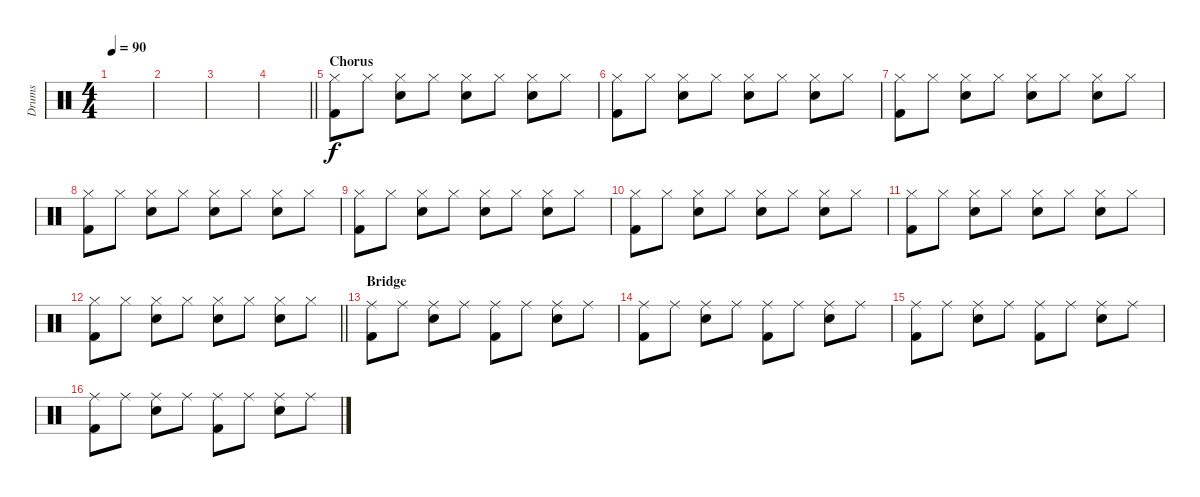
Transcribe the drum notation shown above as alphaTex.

\track ("Drums" "Drums") {instrument percussion}
\staff {score}
\articulation defaults
\ts (4 4)
\tempo 90
\clef neutral
\ks c
|
|
|
\barLineRight lightlight
|
\section ("" "Chorus")
("Hi-Hat (closed)" "Kick (hit) 2").8 "Hi-Hat (closed)".8 ("Hi-Hat (closed)" "Snare (hit) 2").8 "Hi-Hat (closed)".8 ("Hi-Hat (closed)" "Snare (hit) 2").8 "Hi-Hat (closed)".8 ("Hi-Hat (closed)" "Snare (hit) 2").8 "Hi-Hat (closed)".8 |
("Hi-Hat (closed)" "Kick (hit) 2").8 "Hi-Hat (closed)".8 ("Hi-Hat (closed)" "Snare (hit) 2").8 "Hi-Hat (closed)".8 ("Hi-Hat (closed)" "Snare (hit) 2").8 "Hi-Hat (closed)".8 ("Hi-Hat (closed)" "Snare (hit) 2").8 "Hi-Hat (closed)".8 |
("Hi-Hat (closed)" "Kick (hit) 2").8 "Hi-Hat (closed)".8 ("Hi-Hat (closed)" "Snare (hit) 2").8 "Hi-Hat (closed)".8 ("Hi-Hat (closed)" "Snare (hit) 2").8 "Hi-Hat (closed)".8 ("Hi-Hat (closed)" "Snare (hit) 2").8 "Hi-Hat (closed)".8 |
("Hi-Hat (closed)" "Kick (hit) 2").8 "Hi-Hat (closed)".8 ("Hi-Hat (closed)" "Snare (hit) 2").8 "Hi-Hat (closed)".8 ("Hi-Hat (closed)" "Snare (hit) 2").8 "Hi-Hat (closed)".8 ("Hi-Hat (closed)" "Snare (hit) 2").8 "Hi-Hat (closed)".8 |
("Hi-Hat (closed)" "Kick (hit) 2").8 "Hi-Hat (closed)".8 ("Hi-Hat (closed)" "Snare (hit) 2").8 "Hi-Hat (closed)".8 ("Hi-Hat (closed)" "Snare (hit) 2").8 "Hi-Hat (closed)".8 ("Hi-Hat (closed)" "Snare (hit) 2").8 "Hi-Hat (closed)".8 |
("Hi-Hat (closed)" "Kick (hit) 2").8 "Hi-Hat (closed)".8 ("Hi-Hat (closed)" "Snare (hit) 2").8 "Hi-Hat (closed)".8 ("Hi-Hat (closed)" "Snare (hit) 2").8 "Hi-Hat (closed)".8 ("Hi-Hat (closed)" "Snare (hit) 2").8 "Hi-Hat (closed)".8 |
("Hi-Hat (closed)" "Kick (hit) 2").8 "Hi-Hat (closed)".8 ("Hi-Hat (closed)" "Snare (hit) 2").8 "Hi-Hat (closed)".8 ("Hi-Hat (closed)" "Snare (hit) 2").8 "Hi-Hat (closed)".8 ("Hi-Hat (closed)" "Snare (hit) 2").8 "Hi-Hat (closed)".8 |
\barLineRight lightlight
("Hi-Hat (closed)" "Kick (hit) 2").8 "Hi-Hat (closed)".8 ("Hi-Hat (closed)" "Snare (hit) 2").8 "Hi-Hat (closed)".8 ("Hi-Hat (closed)" "Snare (hit) 2").8 "Hi-Hat (closed)".8 ("Hi-Hat (closed)" "Snare (hit) 2").8 "Hi-Hat (closed)".8 |
\section ("" "Bridge")
("Ride (middle)" "Kick (hit) 2").8 "Ride (middle)".8 ("Ride (middle)" "Snare (hit) 2").8 "Ride (middle)".8 ("Ride (middle)" "Kick (hit) 2").8 "Ride (middle)".8 ("Ride (middle)" "Snare (hit) 2").8 "Ride (middle)".8 |
("Ride (middle)" "Kick (hit) 2").8 "Ride (middle)".8 ("Ride (middle)" "Snare (hit) 2").8 "Ride (middle)".8 ("Ride (middle)" "Kick (hit) 2").8 "Ride (middle)".8 ("Ride (middle)" "Snare (hit) 2").8 "Ride (middle)".8 |
("Ride (middle)" "Kick (hit) 2").8 "Ride (middle)".8 ("Ride (middle)" "Snare (hit) 2").8 "Ride (middle)".8 ("Ride (middle)" "Kick (hit) 2").8 "Ride (middle)".8 ("Ride (middle)" "Snare (hit) 2").8 "Ride (middle)".8 |
("Ride (middle)" "Kick (hit) 2").8 "Ride (middle)".8 ("Ride (middle)" "Snare (hit) 2").8 "Ride (middle)".8 ("Ride (middle)" "Kick (hit) 2").8 "Ride (middle)".8 ("Ride (middle)" "Snare (hit) 2").8 "Ride (middle)".8
